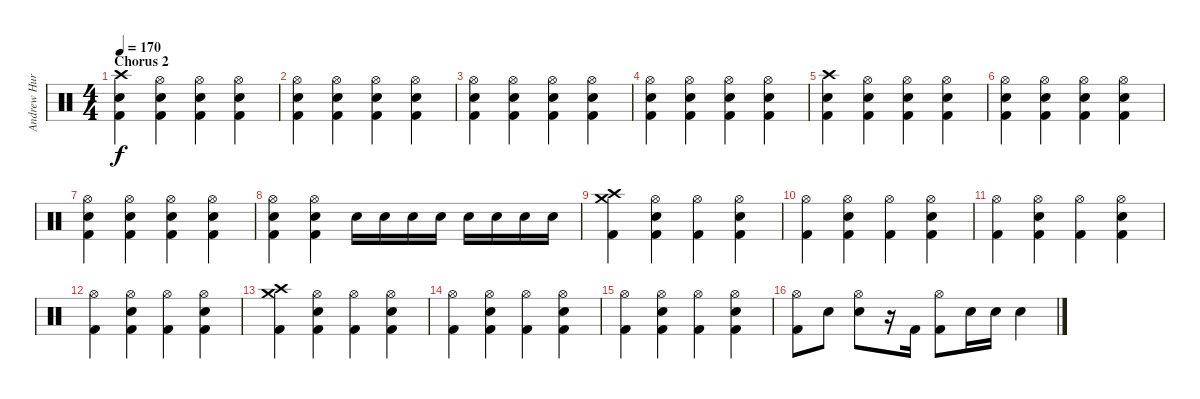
\track ("Andrew Hurley (Drums)" "Andrew Hur") {instrument percussion}
\staff {score}
\articulation defaults
\ts (4 4)
\section ("" "Chorus 2")
\tempo 170
\clef neutral
\ks c
("Crash high (hit)" "Electric Snare (hit)" "Kick (hit) 2").4{dy f} ("Hi-Hat (open)" "Electric Snare (hit)" "Kick (hit) 2").4 ("Hi-Hat (open)" "Electric Snare (hit)" "Kick (hit) 2").4 ("Hi-Hat (open)" "Electric Snare (hit)" "Kick (hit) 2").4 |
("Hi-Hat (open)" "Electric Snare (hit)" "Kick (hit) 2").4 ("Hi-Hat (open)" "Electric Snare (hit)" "Kick (hit) 2").4 ("Hi-Hat (open)" "Electric Snare (hit)" "Kick (hit) 2").4 ("Hi-Hat (open)" "Electric Snare (hit)" "Kick (hit) 2").4 |
("Hi-Hat (open)" "Electric Snare (hit)" "Kick (hit) 2").4 ("Hi-Hat (open)" "Electric Snare (hit)" "Kick (hit) 2").4 ("Hi-Hat (open)" "Electric Snare (hit)" "Kick (hit) 2").4 ("Hi-Hat (open)" "Electric Snare (hit)" "Kick (hit) 2").4 |
("Hi-Hat (open)" "Electric Snare (hit)" "Kick (hit) 2").4 ("Hi-Hat (open)" "Electric Snare (hit)" "Kick (hit) 2").4 ("Hi-Hat (open)" "Electric Snare (hit)" "Kick (hit) 2").4 ("Hi-Hat (open)" "Electric Snare (hit)" "Kick (hit) 2").4 |
("Crash high (hit)" "Electric Snare (hit)" "Kick (hit) 2").4 ("Hi-Hat (open)" "Electric Snare (hit)" "Kick (hit) 2").4 ("Hi-Hat (open)" "Electric Snare (hit)" "Kick (hit) 2").4 ("Hi-Hat (open)" "Electric Snare (hit)" "Kick (hit) 2").4 |
("Hi-Hat (open)" "Electric Snare (hit)" "Kick (hit) 2").4 ("Hi-Hat (open)" "Electric Snare (hit)" "Kick (hit) 2").4 ("Hi-Hat (open)" "Electric Snare (hit)" "Kick (hit) 2").4 ("Hi-Hat (open)" "Electric Snare (hit)" "Kick (hit) 2").4 |
("Hi-Hat (open)" "Electric Snare (hit)" "Kick (hit) 2").4 ("Hi-Hat (open)" "Electric Snare (hit)" "Kick (hit) 2").4 ("Hi-Hat (open)" "Electric Snare (hit)" "Kick (hit) 2").4 ("Hi-Hat (open)" "Electric Snare (hit)" "Kick (hit) 2").4 |
("Hi-Hat (open)" "Electric Snare (hit)" "Kick (hit) 2").4 ("Hi-Hat (open)" "Electric Snare (hit)" "Kick (hit) 2").4 "Electric Snare (hit)".16 "Electric Snare (hit)".16 "Electric Snare (hit)".16 "Electric Snare (hit)".16 "Electric Snare (hit)".16 "Electric Snare (hit)".16 "Electric Snare (hit)".16 "Electric Snare (hit)".16 |
("Crash high (hit)" "Crash medium (hit)" "Kick (hit) 2").4 ("Hi-Hat (open)" "Electric Snare (hit)" "Kick (hit) 2").4 ("Hi-Hat (open)" "Kick (hit) 2").4 ("Hi-Hat (open)" "Electric Snare (hit)" "Kick (hit) 2").4 |
("Hi-Hat (open)" "Kick (hit) 2").4 ("Hi-Hat (open)" "Electric Snare (hit)" "Kick (hit) 2").4 ("Hi-Hat (open)" "Kick (hit) 2").4 ("Hi-Hat (open)" "Electric Snare (hit)" "Kick (hit) 2").4 |
("Hi-Hat (open)" "Kick (hit) 2").4 ("Hi-Hat (open)" "Electric Snare (hit)" "Kick (hit) 2").4 ("Hi-Hat (open)" "Kick (hit) 2").4 ("Hi-Hat (open)" "Electric Snare (hit)" "Kick (hit) 2").4 |
("Hi-Hat (open)" "Kick (hit) 2").4 ("Hi-Hat (open)" "Electric Snare (hit)" "Kick (hit) 2").4 ("Hi-Hat (open)" "Kick (hit) 2").4 ("Hi-Hat (open)" "Electric Snare (hit)" "Kick (hit) 2").4 |
("Crash high (hit)" "Crash medium (hit)" "Kick (hit) 2").4 ("Hi-Hat (open)" "Electric Snare (hit)" "Kick (hit) 2").4 ("Hi-Hat (open)" "Kick (hit) 2").4 ("Hi-Hat (open)" "Electric Snare (hit)" "Kick (hit) 2").4 |
("Hi-Hat (open)" "Kick (hit) 2").4 ("Hi-Hat (open)" "Electric Snare (hit)" "Kick (hit) 2").4 ("Hi-Hat (open)" "Kick (hit) 2").4 ("Hi-Hat (open)" "Electric Snare (hit)" "Kick (hit) 2").4 |
("Hi-Hat (open)" "Kick (hit) 2").4 ("Hi-Hat (open)" "Electric Snare (hit)" "Kick (hit) 2").4 ("Hi-Hat (open)" "Kick (hit) 2").4 ("Hi-Hat (open)" "Electric Snare (hit)" "Kick (hit) 2").4 |
("Hi-Hat (open)" "Kick (hit) 2").8 "Electric Snare (hit)".8 ("Hi-Hat (open)" "Electric Snare (hit)").8 r.16 "Kick (hit) 2".16 ("Hi-Hat (open)" "Kick (hit) 2").8 "Electric Snare (hit)".16 "Electric Snare (hit)".16 "Electric Snare (hit)".4
